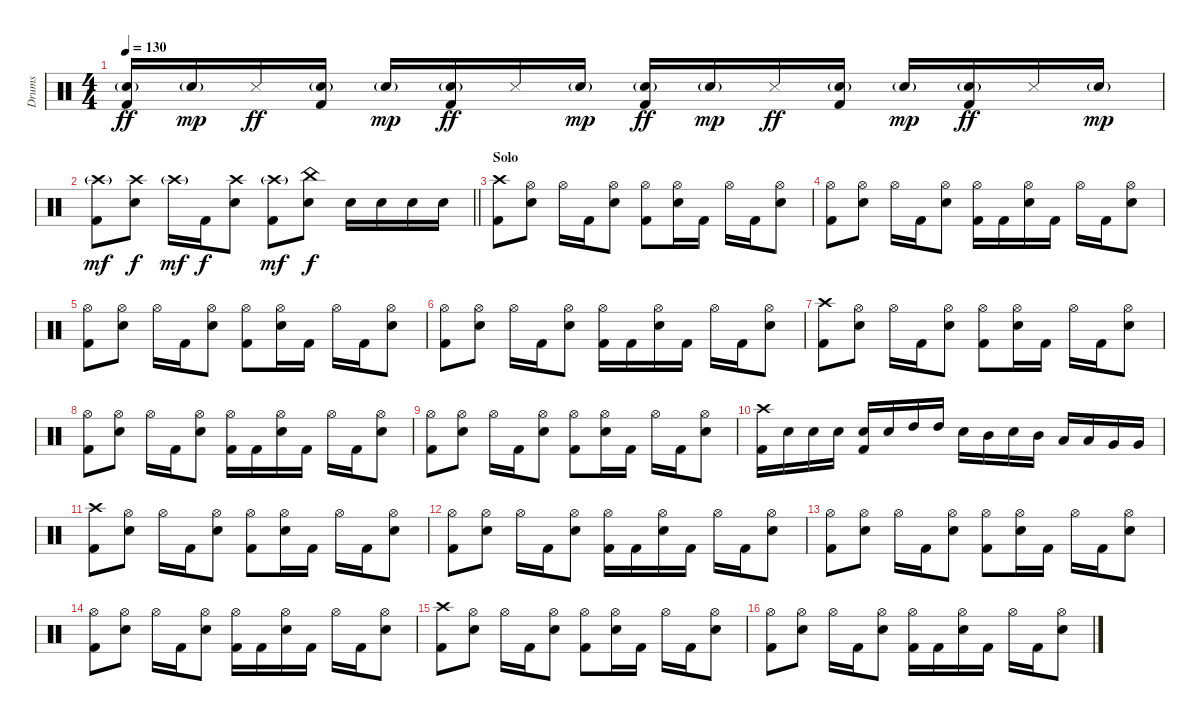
\track ("Drums" "Drums") {instrument percussion}
\staff {score}
\articulation defaults
\ts (4 4)
\tempo 130
\clef neutral
\ks c
("Electric Snare (hit)"{g} "Kick (hit) 2").16{dy ff} "Electric Snare (hit)"{g}.16{dy mp} "Snare (side stick) 3".16{dy ff} ("Electric Snare (hit)"{g} "Kick (hit) 2").16 "Electric Snare (hit)"{g}.16{dy mp} ("Electric Snare (hit)"{g} "Kick (hit) 2").16{dy ff} "Snare (side stick) 3".16 "Electric Snare (hit)"{g}.16{dy mp} ("Electric Snare (hit)"{g} "Kick (hit) 2").16{dy ff} "Electric Snare (hit)"{g}.16{dy mp} "Snare (side stick) 3".16{dy ff} ("Electric Snare (hit)"{g} "Kick (hit) 2").16 "Electric Snare (hit)"{g}.16{dy mp} ("Electric Snare (hit)"{g} "Kick (hit) 2").16{dy ff} "Snare (side stick) 3".16 "Electric Snare (hit)"{g}.16{dy mp} |
\barLineRight lightlight
("Crash high (hit)"{g} "Kick (hit) 2").8{dy mf} ("Crash high (hit)" "Electric Snare (hit)").8{dy f} "Crash high (hit)"{g}.16{dy mf} "Kick (hit) 2".16{dy f} ("Crash high (hit)" "Electric Snare (hit)").8 ("Crash high (hit)"{g} "Kick (hit) 2").8{dy mf} ("China (hit)" "Electric Snare (hit)").8{dy f} "Electric Snare (hit)".16 "Electric Snare (hit)".16 "Electric Snare (hit)".16 "Electric Snare (hit)".16 |
\section ("" "Solo")
("Crash high (hit)" "Kick (hit) 2").8 ("Hi-Hat (open)" "Electric Snare (hit)").8 "Hi-Hat (open)".16 "Kick (hit) 2".16 ("Hi-Hat (open)" "Electric Snare (hit)").8 ("Hi-Hat (open)" "Kick (hit) 2").8 ("Hi-Hat (open)" "Electric Snare (hit)").16 "Kick (hit) 2".16 "Hi-Hat (open)".16 "Kick (hit) 2".16 ("Hi-Hat (open)" "Electric Snare (hit)").8 |
("Hi-Hat (open)" "Kick (hit) 2").8 ("Hi-Hat (open)" "Electric Snare (hit)").8 "Hi-Hat (open)".16 "Kick (hit) 2".16 ("Hi-Hat (open)" "Electric Snare (hit)").8 ("Hi-Hat (open)" "Kick (hit) 2").16 "Kick (hit) 2".16 ("Hi-Hat (open)" "Electric Snare (hit)").16 "Kick (hit) 2".16 "Hi-Hat (open)".16 "Kick (hit) 2".16 ("Hi-Hat (open)" "Electric Snare (hit)").8 |
("Hi-Hat (open)" "Kick (hit) 2").8 ("Hi-Hat (open)" "Electric Snare (hit)").8 "Hi-Hat (open)".16 "Kick (hit) 2".16 ("Hi-Hat (open)" "Electric Snare (hit)").8 ("Hi-Hat (open)" "Kick (hit) 2").8 ("Hi-Hat (open)" "Electric Snare (hit)").16 "Kick (hit) 2".16 "Hi-Hat (open)".16 "Kick (hit) 2".16 ("Hi-Hat (open)" "Electric Snare (hit)").8 |
("Hi-Hat (open)" "Kick (hit) 2").8 ("Hi-Hat (open)" "Electric Snare (hit)").8 "Hi-Hat (open)".16 "Kick (hit) 2".16 ("Hi-Hat (open)" "Electric Snare (hit)").8 ("Hi-Hat (open)" "Kick (hit) 2").16 "Kick (hit) 2".16 ("Hi-Hat (open)" "Electric Snare (hit)").16 "Kick (hit) 2".16 "Hi-Hat (open)".16 "Kick (hit) 2".16 ("Hi-Hat (open)" "Electric Snare (hit)").8 |
("Crash high (hit)" "Kick (hit) 2").8 ("Hi-Hat (open)" "Electric Snare (hit)").8 "Hi-Hat (open)".16 "Kick (hit) 2".16 ("Hi-Hat (open)" "Electric Snare (hit)").8 ("Hi-Hat (open)" "Kick (hit) 2").8 ("Hi-Hat (open)" "Electric Snare (hit)").16 "Kick (hit) 2".16 "Hi-Hat (open)".16 "Kick (hit) 2".16 ("Hi-Hat (open)" "Electric Snare (hit)").8 |
("Hi-Hat (open)" "Kick (hit) 2").8 ("Hi-Hat (open)" "Electric Snare (hit)").8 "Hi-Hat (open)".16 "Kick (hit) 2".16 ("Hi-Hat (open)" "Electric Snare (hit)").8 ("Hi-Hat (open)" "Kick (hit) 2").16 "Kick (hit) 2".16 ("Hi-Hat (open)" "Electric Snare (hit)").16 "Kick (hit) 2".16 "Hi-Hat (open)".16 "Kick (hit) 2".16 ("Hi-Hat (open)" "Electric Snare (hit)").8 |
("Hi-Hat (open)" "Kick (hit) 2").8 ("Hi-Hat (open)" "Electric Snare (hit)").8 "Hi-Hat (open)".16 "Kick (hit) 2".16 ("Hi-Hat (open)" "Electric Snare (hit)").8 ("Hi-Hat (open)" "Kick (hit) 2").8 ("Hi-Hat (open)" "Electric Snare (hit)").16 "Kick (hit) 2".16 "Hi-Hat (open)".16 "Kick (hit) 2".16 ("Hi-Hat (open)" "Electric Snare (hit)").8 |
("Crash high (hit)" "Kick (hit) 2").16 "Electric Snare (hit)".16 "Electric Snare (hit)".16 "Electric Snare (hit)".16 ("Electric Snare (hit)" "Kick (hit) 2").16 "Electric Snare (hit)".16 "High Tom (hit)".16 "High Tom (hit)".16 "Electric Snare (hit)".16 "Mid Tom (hit)".16 "Electric Snare (hit)".16 "Mid Tom (hit)".16 "Low Tom (hit)".16 "Low Tom (hit)".16 "Very Low Tom (hit)".16 "Very Low Tom (hit)".16 |
("Crash high (hit)" "Kick (hit) 2").8 ("Hi-Hat (open)" "Electric Snare (hit)").8 "Hi-Hat (open)".16 "Kick (hit) 2".16 ("Hi-Hat (open)" "Electric Snare (hit)").8 ("Hi-Hat (open)" "Kick (hit) 2").8 ("Hi-Hat (open)" "Electric Snare (hit)").16 "Kick (hit) 2".16 "Hi-Hat (open)".16 "Kick (hit) 2".16 ("Hi-Hat (open)" "Electric Snare (hit)").8 |
("Hi-Hat (open)" "Kick (hit) 2").8 ("Hi-Hat (open)" "Electric Snare (hit)").8 "Hi-Hat (open)".16 "Kick (hit) 2".16 ("Hi-Hat (open)" "Electric Snare (hit)").8 ("Hi-Hat (open)" "Kick (hit) 2").16 "Kick (hit) 2".16 ("Hi-Hat (open)" "Electric Snare (hit)").16 "Kick (hit) 2".16 "Hi-Hat (open)".16 "Kick (hit) 2".16 ("Hi-Hat (open)" "Electric Snare (hit)").8 |
("Hi-Hat (open)" "Kick (hit) 2").8 ("Hi-Hat (open)" "Electric Snare (hit)").8 "Hi-Hat (open)".16 "Kick (hit) 2".16 ("Hi-Hat (open)" "Electric Snare (hit)").8 ("Hi-Hat (open)" "Kick (hit) 2").8 ("Hi-Hat (open)" "Electric Snare (hit)").16 "Kick (hit) 2".16 "Hi-Hat (open)".16 "Kick (hit) 2".16 ("Hi-Hat (open)" "Electric Snare (hit)").8 |
("Hi-Hat (open)" "Kick (hit) 2").8 ("Hi-Hat (open)" "Electric Snare (hit)").8 "Hi-Hat (open)".16 "Kick (hit) 2".16 ("Hi-Hat (open)" "Electric Snare (hit)").8 ("Hi-Hat (open)" "Kick (hit) 2").16 "Kick (hit) 2".16 ("Hi-Hat (open)" "Electric Snare (hit)").16 "Kick (hit) 2".16 "Hi-Hat (open)".16 "Kick (hit) 2".16 ("Hi-Hat (open)" "Electric Snare (hit)").8 |
("Crash high (hit)" "Kick (hit) 2").8 ("Hi-Hat (open)" "Electric Snare (hit)").8 "Hi-Hat (open)".16 "Kick (hit) 2".16 ("Hi-Hat (open)" "Electric Snare (hit)").8 ("Hi-Hat (open)" "Kick (hit) 2").8 ("Hi-Hat (open)" "Electric Snare (hit)").16 "Kick (hit) 2".16 "Hi-Hat (open)".16 "Kick (hit) 2".16 ("Hi-Hat (open)" "Electric Snare (hit)").8 |
("Hi-Hat (open)" "Kick (hit) 2").8 ("Hi-Hat (open)" "Electric Snare (hit)").8 "Hi-Hat (open)".16 "Kick (hit) 2".16 ("Hi-Hat (open)" "Electric Snare (hit)").8 ("Hi-Hat (open)" "Kick (hit) 2").16 "Kick (hit) 2".16 ("Hi-Hat (open)" "Electric Snare (hit)").16 "Kick (hit) 2".16 "Hi-Hat (open)".16 "Kick (hit) 2".16 ("Hi-Hat (open)" "Electric Snare (hit)").8
